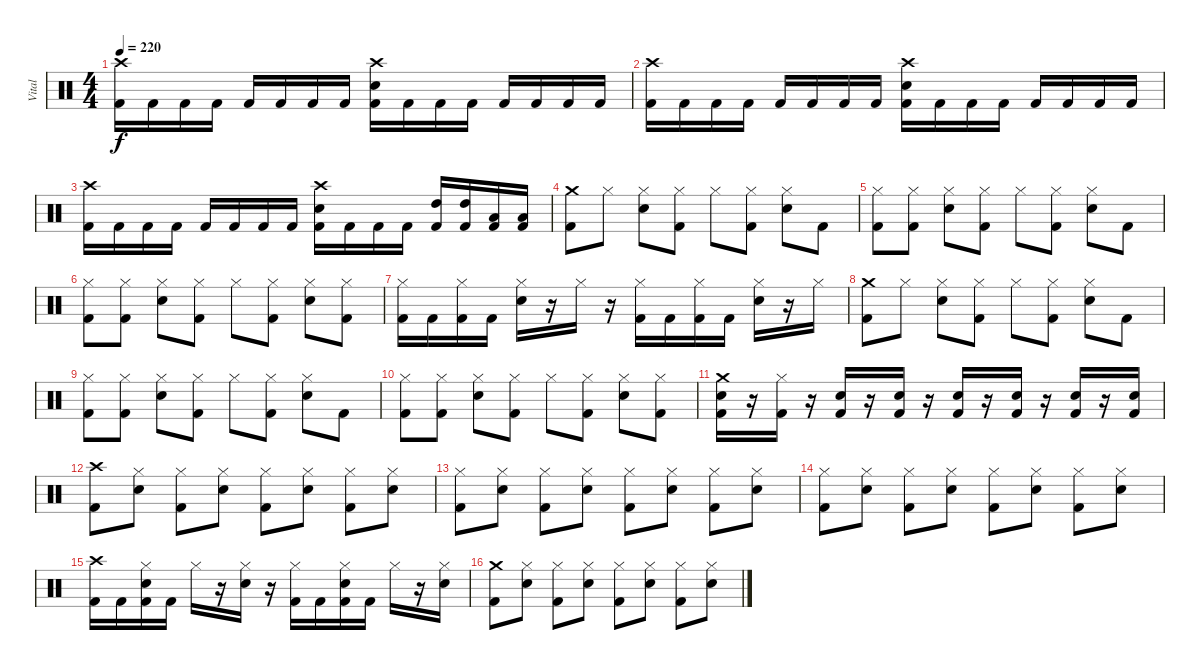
\track ("Vital" "Vital") {instrument percussion}
\staff {score}
\articulation defaults
\ts (4 4)
\tempo 220
\clef neutral
\ks c
("Crash high (hit)" "Kick (hit) 2").16{dy f} "Kick (hit) 2".16 "Kick (hit) 2".16 "Kick (hit) 2".16 "Kick (hit) 2".16 "Kick (hit) 2".16 "Kick (hit) 2".16 "Kick (hit) 2".16 ("Crash high (hit)" "Snare (hit) 2" "Kick (hit) 2").16 "Kick (hit) 2".16 "Kick (hit) 2".16 "Kick (hit) 2".16 "Kick (hit) 2".16 "Kick (hit) 2".16 "Kick (hit) 2".16 "Kick (hit) 2".16 |
("Crash high (hit)" "Kick (hit) 2").16 "Kick (hit) 2".16 "Kick (hit) 2".16 "Kick (hit) 2".16 "Kick (hit) 2".16 "Kick (hit) 2".16 "Kick (hit) 2".16 "Kick (hit) 2".16 ("Crash high (hit)" "Snare (hit) 2" "Kick (hit) 2").16 "Kick (hit) 2".16 "Kick (hit) 2".16 "Kick (hit) 2".16 "Kick (hit) 2".16 "Kick (hit) 2".16 "Kick (hit) 2".16 "Kick (hit) 2".16 |
("Crash high (hit)" "Kick (hit) 2").16 "Kick (hit) 2".16 "Kick (hit) 2".16 "Kick (hit) 2".16 "Kick (hit) 2".16 "Kick (hit) 2".16 "Kick (hit) 2".16 "Kick (hit) 2".16 ("Crash high (hit)" "Snare (hit) 2" "Kick (hit) 2").16 "Kick (hit) 2".16 "Kick (hit) 2".16 "Kick (hit) 2".16 ("High Tom (hit)" "Kick (hit) 2").16 ("High Tom (hit)" "Kick (hit) 2").16 ("Low Tom (hit)" "Kick (hit) 2").16 ("Low Tom (hit)" "Kick (hit) 2").16 |
("Crash medium (hit)" "Kick (hit) 2").8 "Hi-Hat (closed)".8 ("Hi-Hat (closed)" "Snare (hit) 2").8 ("Hi-Hat (closed)" "Kick (hit) 2").8 "Hi-Hat (closed)".8 ("Hi-Hat (closed)" "Kick (hit) 2").8 ("Hi-Hat (closed)" "Snare (hit) 2").8 "Kick (hit) 2".8 |
("Hi-Hat (closed)" "Kick (hit) 2").8 ("Hi-Hat (closed)" "Kick (hit) 2").8 ("Hi-Hat (closed)" "Snare (hit) 2").8 ("Hi-Hat (closed)" "Kick (hit) 2").8 "Hi-Hat (closed)".8 ("Hi-Hat (closed)" "Kick (hit) 2").8 ("Hi-Hat (closed)" "Snare (hit) 2").8 "Kick (hit) 2".8 |
("Hi-Hat (closed)" "Kick (hit) 2").8 ("Hi-Hat (closed)" "Kick (hit) 2").8 ("Hi-Hat (closed)" "Snare (hit) 2").8 ("Hi-Hat (closed)" "Kick (hit) 2").8 "Hi-Hat (closed)".8 ("Hi-Hat (closed)" "Kick (hit) 2").8 ("Hi-Hat (closed)" "Snare (hit) 2").8 ("Hi-Hat (closed)" "Kick (hit) 2").8 |
("Hi-Hat (closed)" "Kick (hit) 2").16 "Kick (hit) 2".16 ("Hi-Hat (closed)" "Kick (hit) 2").16 "Kick (hit) 2".16 ("Hi-Hat (closed)" "Snare (hit) 2").16 r.16 "Hi-Hat (closed)".16 r.16 ("Hi-Hat (closed)" "Kick (hit) 2").16 "Kick (hit) 2".16 ("Hi-Hat (closed)" "Kick (hit) 2").16 "Kick (hit) 2".16 ("Hi-Hat (closed)" "Snare (hit) 2").16 r.16 "Hi-Hat (closed)".16 |
("Crash medium (hit)" "Kick (hit) 2").8 "Hi-Hat (closed)".8 ("Hi-Hat (closed)" "Snare (hit) 2").8 ("Hi-Hat (closed)" "Kick (hit) 2").8 "Hi-Hat (closed)".8 ("Hi-Hat (closed)" "Kick (hit) 2").8 ("Hi-Hat (closed)" "Snare (hit) 2").8 "Kick (hit) 2".8 |
("Hi-Hat (closed)" "Kick (hit) 2").8 ("Hi-Hat (closed)" "Kick (hit) 2").8 ("Hi-Hat (closed)" "Snare (hit) 2").8 ("Hi-Hat (closed)" "Kick (hit) 2").8 "Hi-Hat (closed)".8 ("Hi-Hat (closed)" "Kick (hit) 2").8 ("Hi-Hat (closed)" "Snare (hit) 2").8 "Kick (hit) 2".8 |
("Hi-Hat (closed)" "Kick (hit) 2").8 ("Hi-Hat (closed)" "Kick (hit) 2").8 ("Hi-Hat (closed)" "Snare (hit) 2").8 ("Hi-Hat (closed)" "Kick (hit) 2").8 "Hi-Hat (closed)".8 ("Hi-Hat (closed)" "Kick (hit) 2").8 ("Hi-Hat (closed)" "Snare (hit) 2").8 ("Hi-Hat (closed)" "Kick (hit) 2").8 |
("Crash medium (hit)" "Snare (hit) 2" "Kick (hit) 2").16 r.16 ("Hi-Hat (closed)" "Kick (hit) 2").16 r.16 ("Snare (hit) 2" "Kick (hit) 2").16 r.16 ("Snare (hit) 2" "Kick (hit) 2").16 r.16 ("Snare (hit) 2" "Kick (hit) 2").16 r.16 ("Snare (hit) 2" "Kick (hit) 2").16 r.16 ("Snare (hit) 2" "Kick (hit) 2").16 r.16 ("Snare (hit) 2" "Kick (hit) 2").16 |
("Crash high (hit)" "Kick (hit) 2").8 ("Hi-Hat (closed)" "Snare (hit) 2").8 ("Hi-Hat (closed)" "Kick (hit) 2").8 ("Hi-Hat (closed)" "Snare (hit) 2").8 ("Hi-Hat (closed)" "Kick (hit) 2").8 ("Hi-Hat (closed)" "Snare (hit) 2").8 ("Hi-Hat (closed)" "Kick (hit) 2").8 ("Hi-Hat (closed)" "Snare (hit) 2").8 |
("Hi-Hat (closed)" "Kick (hit) 2").8 ("Hi-Hat (closed)" "Snare (hit) 2").8 ("Hi-Hat (closed)" "Kick (hit) 2").8 ("Hi-Hat (closed)" "Snare (hit) 2").8 ("Hi-Hat (closed)" "Kick (hit) 2").8 ("Hi-Hat (closed)" "Snare (hit) 2").8 ("Hi-Hat (closed)" "Kick (hit) 2").8 ("Hi-Hat (closed)" "Snare (hit) 2").8 |
("Hi-Hat (closed)" "Kick (hit) 2").8 ("Hi-Hat (closed)" "Snare (hit) 2").8 ("Hi-Hat (closed)" "Kick (hit) 2").8 ("Hi-Hat (closed)" "Snare (hit) 2").8 ("Hi-Hat (closed)" "Kick (hit) 2").8 ("Hi-Hat (closed)" "Snare (hit) 2").8 ("Hi-Hat (closed)" "Kick (hit) 2").8 ("Hi-Hat (closed)" "Snare (hit) 2").8 |
("Crash high (hit)" "Kick (hit) 2").16 "Kick (hit) 2".16 ("Hi-Hat (closed)" "Snare (hit) 2" "Kick (hit) 2").16 "Kick (hit) 2".16 "Hi-Hat (closed)".16 r.16 ("Hi-Hat (closed)" "Snare (hit) 2").16 r.16 ("Hi-Hat (closed)" "Kick (hit) 2").16 "Kick (hit) 2".16 ("Hi-Hat (closed)" "Snare (hit) 2" "Kick (hit) 2").16 "Kick (hit) 2".16 "Hi-Hat (closed)".16 r.16 ("Hi-Hat (closed)" "Snare (hit) 2").16 |
("Crash medium (hit)" "Kick (hit) 2").8 ("Hi-Hat (closed)" "Snare (hit) 2").8 ("Hi-Hat (closed)" "Kick (hit) 2").8 ("Hi-Hat (closed)" "Snare (hit) 2").8 ("Hi-Hat (closed)" "Kick (hit) 2").8 ("Hi-Hat (closed)" "Snare (hit) 2").8 ("Hi-Hat (closed)" "Kick (hit) 2").8 ("Hi-Hat (closed)" "Snare (hit) 2").8
